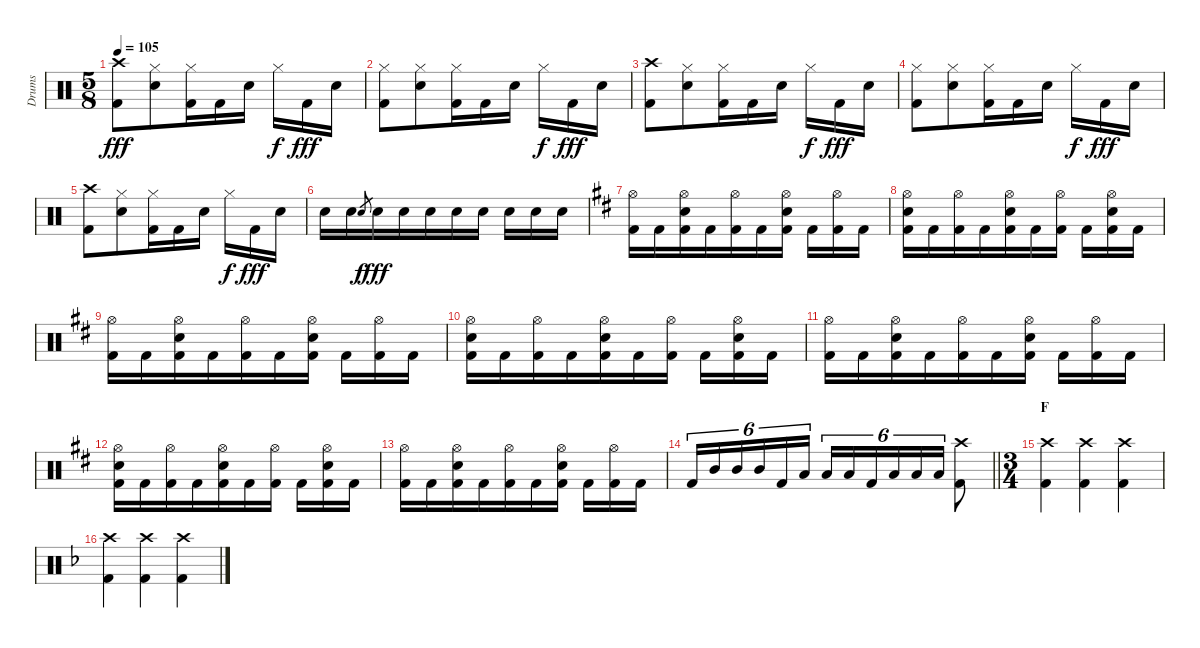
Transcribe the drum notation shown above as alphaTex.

\track ("Drums" "Drums") {instrument percussion}
\staff {score}
\articulation defaults
\ts (5 8)
\tempo 105
\clef neutral
\ks aminor
("Crash high (hit)" "Kick (hit) 2").8{dy fff beam merge} ("Hi-Hat (closed)" "Snare (hit) 2").8 ("Hi-Hat (closed)" "Kick (hit) 2").16 "Kick (hit) 2".16{beam merge} "Snare (hit) 2".16{beam split} "Hi-Hat (closed)".16{dy f beam merge} "Kick (hit) 2".16{dy fff} "Snare (hit) 2".16 |
("Hi-Hat (closed)" "Kick (hit) 2").8{beam merge} ("Hi-Hat (closed)" "Snare (hit) 2").8 ("Hi-Hat (closed)" "Kick (hit) 2").16 "Kick (hit) 2".16{beam merge} "Snare (hit) 2".16{beam split} "Hi-Hat (closed)".16{dy f beam merge} "Kick (hit) 2".16{dy fff} "Snare (hit) 2".16 |
("Crash high (hit)" "Kick (hit) 2").8{beam merge} ("Hi-Hat (closed)" "Snare (hit) 2").8 ("Hi-Hat (closed)" "Kick (hit) 2").16 "Kick (hit) 2".16{beam merge} "Snare (hit) 2".16{beam split} "Hi-Hat (closed)".16{dy f beam merge} "Kick (hit) 2".16{dy fff} "Snare (hit) 2".16 |
("Hi-Hat (closed)" "Kick (hit) 2").8{beam merge} ("Hi-Hat (closed)" "Snare (hit) 2").8 ("Hi-Hat (closed)" "Kick (hit) 2").16 "Kick (hit) 2".16{beam merge} "Snare (hit) 2".16{beam split} "Hi-Hat (closed)".16{dy f beam merge} "Kick (hit) 2".16{dy fff} "Snare (hit) 2".16 |
("Crash high (hit)" "Kick (hit) 2").8{beam merge} ("Hi-Hat (closed)" "Snare (hit) 2").8 ("Hi-Hat (closed)" "Kick (hit) 2").16 "Kick (hit) 2".16{beam merge} "Snare (hit) 2".16{beam split} "Hi-Hat (closed)".16{dy f beam merge} "Kick (hit) 2".16{dy fff} "Snare (hit) 2".16 |
"Snare (hit) 2".16 "Snare (hit) 2".16 "Snare (hit) 2".8{gr dy f beam merge} "Snare (hit) 2".16{dy fff} "Snare (hit) 2".16 "Snare (hit) 2".16 "Snare (hit) 2".16{beam merge} "Snare (hit) 2".16{beam split} "Snare (hit) 2".16{beam merge} "Snare (hit) 2".16 "Snare (hit) 2".16 |
\ks bminor
("Hi-Hat (open)" "Kick (hit) 2").16 "Kick (hit) 2".16{beam merge} ("Hi-Hat (open)" "Snare (hit) 2" "Kick (hit) 2").16 "Kick (hit) 2".16 ("Hi-Hat (open)" "Kick (hit) 2").16 "Kick (hit) 2".16{beam merge} ("Hi-Hat (open)" "Snare (hit) 2" "Kick (hit) 2").16{beam split} "Kick (hit) 2".16{beam merge} ("Hi-Hat (open)" "Kick (hit) 2").16 "Kick (hit) 2".16 |
("Hi-Hat (open)" "Snare (hit) 2" "Kick (hit) 2").16 "Kick (hit) 2".16{beam merge} ("Hi-Hat (open)" "Kick (hit) 2").16 "Kick (hit) 2".16 ("Hi-Hat (open)" "Snare (hit) 2" "Kick (hit) 2").16 "Kick (hit) 2".16{beam merge} ("Hi-Hat (open)" "Kick (hit) 2").16{beam split} "Kick (hit) 2".16{beam merge} ("Hi-Hat (open)" "Snare (hit) 2" "Kick (hit) 2").16 "Kick (hit) 2".16 |
("Hi-Hat (open)" "Kick (hit) 2").16 "Kick (hit) 2".16{beam merge} ("Hi-Hat (open)" "Snare (hit) 2" "Kick (hit) 2").16 "Kick (hit) 2".16 ("Hi-Hat (open)" "Kick (hit) 2").16 "Kick (hit) 2".16{beam merge} ("Hi-Hat (open)" "Snare (hit) 2" "Kick (hit) 2").16{beam split} "Kick (hit) 2".16{beam merge} ("Hi-Hat (open)" "Kick (hit) 2").16 "Kick (hit) 2".16 |
("Hi-Hat (open)" "Snare (hit) 2" "Kick (hit) 2").16 "Kick (hit) 2".16{beam merge} ("Hi-Hat (open)" "Kick (hit) 2").16 "Kick (hit) 2".16 ("Hi-Hat (open)" "Snare (hit) 2" "Kick (hit) 2").16 "Kick (hit) 2".16{beam merge} ("Hi-Hat (open)" "Kick (hit) 2").16{beam split} "Kick (hit) 2".16{beam merge} ("Hi-Hat (open)" "Snare (hit) 2" "Kick (hit) 2").16 "Kick (hit) 2".16 |
("Hi-Hat (open)" "Kick (hit) 2").16 "Kick (hit) 2".16{beam merge} ("Hi-Hat (open)" "Snare (hit) 2" "Kick (hit) 2").16 "Kick (hit) 2".16 ("Hi-Hat (open)" "Kick (hit) 2").16 "Kick (hit) 2".16{beam merge} ("Hi-Hat (open)" "Snare (hit) 2" "Kick (hit) 2").16{beam split} "Kick (hit) 2".16{beam merge} ("Hi-Hat (open)" "Kick (hit) 2").16 "Kick (hit) 2".16 |
("Hi-Hat (open)" "Snare (hit) 2" "Kick (hit) 2").16 "Kick (hit) 2".16{beam merge} ("Hi-Hat (open)" "Kick (hit) 2").16 "Kick (hit) 2".16 ("Hi-Hat (open)" "Snare (hit) 2" "Kick (hit) 2").16 "Kick (hit) 2".16{beam merge} ("Hi-Hat (open)" "Kick (hit) 2").16{beam split} "Kick (hit) 2".16{beam merge} ("Hi-Hat (open)" "Snare (hit) 2" "Kick (hit) 2").16 "Kick (hit) 2".16 |
("Hi-Hat (open)" "Kick (hit) 2").16 "Kick (hit) 2".16{beam merge} ("Hi-Hat (open)" "Snare (hit) 2" "Kick (hit) 2").16 "Kick (hit) 2".16 ("Hi-Hat (open)" "Kick (hit) 2").16 "Kick (hit) 2".16{beam merge} ("Hi-Hat (open)" "Snare (hit) 2" "Kick (hit) 2").16{beam split} "Kick (hit) 2".16{beam merge} ("Hi-Hat (open)" "Kick (hit) 2").16 "Kick (hit) 2".16 |
\barLineRight lightlight "Kick (hit) 2".16{tu (6 4)} "Mid Tom (hit)".16{tu (6 4)} "Mid Tom (hit)".16{tu (6 4) beam merge} "Mid Tom (hit)".16{tu (6 4)} "Kick (hit) 2".16{tu (6 4)} "Low Tom (hit)".16{tu (6 4)} "Low Tom (hit)".16{tu (6 4)} "Low Tom (hit)".16{tu (6 4)} "Kick (hit) 2".16{tu (6 4) beam merge} "Low Tom (hit)".16{tu (6 4)} "Low Tom (hit)".16{tu (6 4)} "Low Tom (hit)".16{tu (6 4)}
("Crash high (hit)" "Kick (hit) 2").8 |
\ts (3 4)
\section ("" "F")
\ks d
("Crash high (hit)" "Kick (hit) 2").4 ("Crash high (hit)" "Kick (hit) 2").4 ("Crash high (hit)" "Kick (hit) 2").4 |
\ks dminor
("Crash high (hit)" "Kick (hit) 2").4 ("Crash high (hit)" "Kick (hit) 2").4 ("Crash high (hit)" "Kick (hit) 2").4
